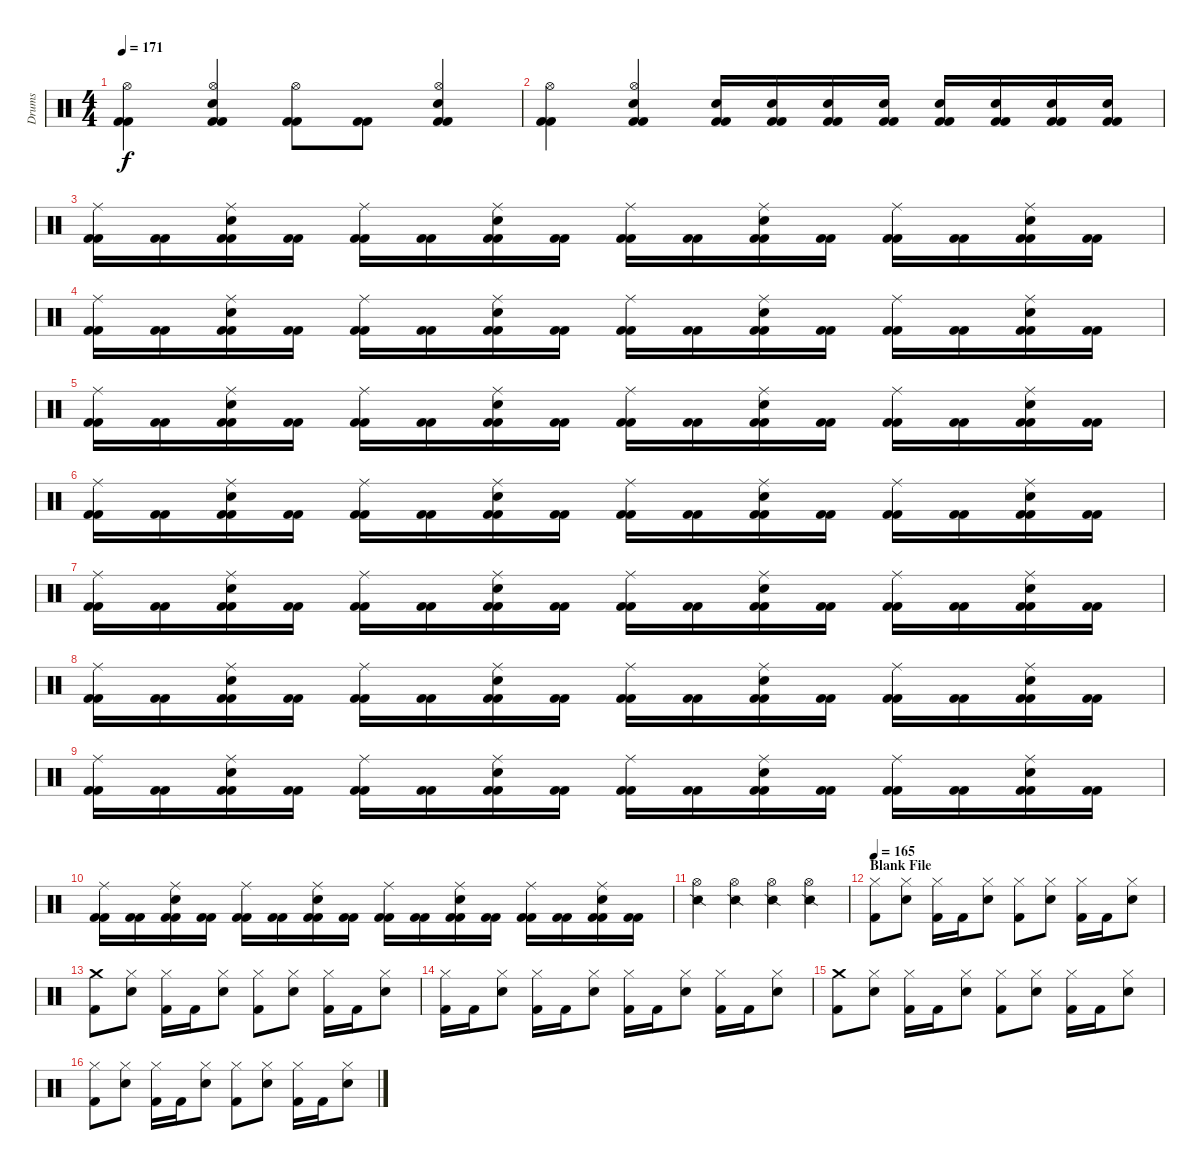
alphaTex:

\track ("Drums" "Drums") {instrument percussion}
\staff {score}
\articulation defaults
\ts (4 4)
\tempo 171
\clef neutral
\ks c
("Kick (hit) 2" "Kick (hit) 2" "Hi-Hat (open)").4{dy f} ("Kick (hit) 2" "Kick (hit) 2" "Electric Snare (hit)" "Hi-Hat (open)").4 ("Kick (hit) 2" "Kick (hit) 2" "Hi-Hat (open)").8 ("Kick (hit) 2" "Kick (hit) 2").8 ("Kick (hit) 2" "Kick (hit) 2" "Electric Snare (hit)" "Hi-Hat (open)").4 |
("Kick (hit) 2" "Kick (hit) 2" "Hi-Hat (open)").4 ("Kick (hit) 2" "Kick (hit) 2" "Electric Snare (hit)" "Hi-Hat (open)").4 ("Kick (hit) 2" "Kick (hit) 2" "Electric Snare (hit)").16 ("Kick (hit) 2" "Kick (hit) 2" "Electric Snare (hit)").16 ("Kick (hit) 2" "Kick (hit) 2" "Electric Snare (hit)").16 ("Kick (hit) 2" "Kick (hit) 2" "Electric Snare (hit)").16 ("Kick (hit) 2" "Kick (hit) 2" "Electric Snare (hit)").16 ("Kick (hit) 2" "Kick (hit) 2" "Electric Snare (hit)").16 ("Kick (hit) 2" "Kick (hit) 2" "Electric Snare (hit)").16 ("Kick (hit) 2" "Kick (hit) 2" "Electric Snare (hit)").16 |
("Kick (hit) 2" "Kick (hit) 2" "Ride (middle)").16 ("Kick (hit) 2" "Kick (hit) 2").16 ("Kick (hit) 2" "Kick (hit) 2" "Electric Snare (hit)" "Ride (middle)").16 ("Kick (hit) 2" "Kick (hit) 2").16 ("Kick (hit) 2" "Kick (hit) 2" "Ride (middle)").16 ("Kick (hit) 2" "Kick (hit) 2").16 ("Kick (hit) 2" "Kick (hit) 2" "Electric Snare (hit)" "Ride (middle)").16 ("Kick (hit) 2" "Kick (hit) 2").16 ("Kick (hit) 2" "Kick (hit) 2" "Ride (middle)").16 ("Kick (hit) 2" "Kick (hit) 2").16 ("Kick (hit) 2" "Kick (hit) 2" "Electric Snare (hit)" "Ride (middle)").16 ("Kick (hit) 2" "Kick (hit) 2").16 ("Kick (hit) 2" "Kick (hit) 2" "Ride (middle)").16 ("Kick (hit) 2" "Kick (hit) 2").16 ("Kick (hit) 2" "Kick (hit) 2" "Electric Snare (hit)" "Ride (middle)").16 ("Kick (hit) 2" "Kick (hit) 2").16 |
("Kick (hit) 2" "Kick (hit) 2" "Ride (middle)").16 ("Kick (hit) 2" "Kick (hit) 2").16 ("Kick (hit) 2" "Kick (hit) 2" "Electric Snare (hit)" "Ride (middle)").16 ("Kick (hit) 2" "Kick (hit) 2").16 ("Kick (hit) 2" "Kick (hit) 2" "Ride (middle)").16 ("Kick (hit) 2" "Kick (hit) 2").16 ("Kick (hit) 2" "Kick (hit) 2" "Electric Snare (hit)" "Ride (middle)").16 ("Kick (hit) 2" "Kick (hit) 2").16 ("Kick (hit) 2" "Kick (hit) 2" "Ride (middle)").16 ("Kick (hit) 2" "Kick (hit) 2").16 ("Kick (hit) 2" "Kick (hit) 2" "Electric Snare (hit)" "Ride (middle)").16 ("Kick (hit) 2" "Kick (hit) 2").16 ("Kick (hit) 2" "Kick (hit) 2" "Ride (middle)").16 ("Kick (hit) 2" "Kick (hit) 2").16 ("Kick (hit) 2" "Kick (hit) 2" "Electric Snare (hit)" "Ride (middle)").16 ("Kick (hit) 2" "Kick (hit) 2").16 |
("Kick (hit) 2" "Kick (hit) 2" "Ride (middle)").16 ("Kick (hit) 2" "Kick (hit) 2").16 ("Kick (hit) 2" "Kick (hit) 2" "Electric Snare (hit)" "Ride (middle)").16 ("Kick (hit) 2" "Kick (hit) 2").16 ("Kick (hit) 2" "Kick (hit) 2" "Ride (middle)").16 ("Kick (hit) 2" "Kick (hit) 2").16 ("Kick (hit) 2" "Kick (hit) 2" "Electric Snare (hit)" "Ride (middle)").16 ("Kick (hit) 2" "Kick (hit) 2").16 ("Kick (hit) 2" "Kick (hit) 2" "Ride (middle)").16 ("Kick (hit) 2" "Kick (hit) 2").16 ("Kick (hit) 2" "Kick (hit) 2" "Electric Snare (hit)" "Ride (middle)").16 ("Kick (hit) 2" "Kick (hit) 2").16 ("Kick (hit) 2" "Kick (hit) 2" "Ride (middle)").16 ("Kick (hit) 2" "Kick (hit) 2").16 ("Kick (hit) 2" "Kick (hit) 2" "Electric Snare (hit)" "Ride (middle)").16 ("Kick (hit) 2" "Kick (hit) 2").16 |
("Kick (hit) 2" "Kick (hit) 2" "Ride (middle)").16 ("Kick (hit) 2" "Kick (hit) 2").16 ("Kick (hit) 2" "Kick (hit) 2" "Electric Snare (hit)" "Ride (middle)").16 ("Kick (hit) 2" "Kick (hit) 2").16 ("Kick (hit) 2" "Kick (hit) 2" "Ride (middle)").16 ("Kick (hit) 2" "Kick (hit) 2").16 ("Kick (hit) 2" "Kick (hit) 2" "Electric Snare (hit)" "Ride (middle)").16 ("Kick (hit) 2" "Kick (hit) 2").16 ("Kick (hit) 2" "Kick (hit) 2" "Ride (middle)").16 ("Kick (hit) 2" "Kick (hit) 2").16 ("Kick (hit) 2" "Kick (hit) 2" "Electric Snare (hit)" "Ride (middle)").16 ("Kick (hit) 2" "Kick (hit) 2").16 ("Kick (hit) 2" "Kick (hit) 2" "Ride (middle)").16 ("Kick (hit) 2" "Kick (hit) 2").16 ("Kick (hit) 2" "Kick (hit) 2" "Electric Snare (hit)" "Ride (middle)").16 ("Kick (hit) 2" "Kick (hit) 2").16 |
("Kick (hit) 2" "Kick (hit) 2" "Ride (middle)").16 ("Kick (hit) 2" "Kick (hit) 2").16 ("Kick (hit) 2" "Kick (hit) 2" "Electric Snare (hit)" "Ride (middle)").16 ("Kick (hit) 2" "Kick (hit) 2").16 ("Kick (hit) 2" "Kick (hit) 2" "Ride (middle)").16 ("Kick (hit) 2" "Kick (hit) 2").16 ("Kick (hit) 2" "Kick (hit) 2" "Electric Snare (hit)" "Ride (middle)").16 ("Kick (hit) 2" "Kick (hit) 2").16 ("Kick (hit) 2" "Kick (hit) 2" "Ride (middle)").16 ("Kick (hit) 2" "Kick (hit) 2").16 ("Kick (hit) 2" "Kick (hit) 2" "Electric Snare (hit)" "Ride (middle)").16 ("Kick (hit) 2" "Kick (hit) 2").16 ("Kick (hit) 2" "Kick (hit) 2" "Ride (middle)").16 ("Kick (hit) 2" "Kick (hit) 2").16 ("Kick (hit) 2" "Kick (hit) 2" "Electric Snare (hit)" "Ride (middle)").16 ("Kick (hit) 2" "Kick (hit) 2").16 |
("Kick (hit) 2" "Kick (hit) 2" "Ride (middle)").16 ("Kick (hit) 2" "Kick (hit) 2").16 ("Kick (hit) 2" "Kick (hit) 2" "Electric Snare (hit)" "Ride (middle)").16 ("Kick (hit) 2" "Kick (hit) 2").16 ("Kick (hit) 2" "Kick (hit) 2" "Ride (middle)").16 ("Kick (hit) 2" "Kick (hit) 2").16 ("Kick (hit) 2" "Kick (hit) 2" "Electric Snare (hit)" "Ride (middle)").16 ("Kick (hit) 2" "Kick (hit) 2").16 ("Kick (hit) 2" "Kick (hit) 2" "Ride (middle)").16 ("Kick (hit) 2" "Kick (hit) 2").16 ("Kick (hit) 2" "Kick (hit) 2" "Electric Snare (hit)" "Ride (middle)").16 ("Kick (hit) 2" "Kick (hit) 2").16 ("Kick (hit) 2" "Kick (hit) 2" "Ride (middle)").16 ("Kick (hit) 2" "Kick (hit) 2").16 ("Kick (hit) 2" "Kick (hit) 2" "Electric Snare (hit)" "Ride (middle)").16 ("Kick (hit) 2" "Kick (hit) 2").16 |
("Kick (hit) 2" "Kick (hit) 2" "Ride (middle)").16 ("Kick (hit) 2" "Kick (hit) 2").16 ("Kick (hit) 2" "Kick (hit) 2" "Electric Snare (hit)" "Ride (middle)").16 ("Kick (hit) 2" "Kick (hit) 2").16 ("Kick (hit) 2" "Kick (hit) 2" "Ride (middle)").16 ("Kick (hit) 2" "Kick (hit) 2").16 ("Kick (hit) 2" "Kick (hit) 2" "Electric Snare (hit)" "Ride (middle)").16 ("Kick (hit) 2" "Kick (hit) 2").16 ("Kick (hit) 2" "Kick (hit) 2" "Ride (middle)").16 ("Kick (hit) 2" "Kick (hit) 2").16 ("Kick (hit) 2" "Kick (hit) 2" "Electric Snare (hit)" "Ride (middle)").16 ("Kick (hit) 2" "Kick (hit) 2").16 ("Kick (hit) 2" "Kick (hit) 2" "Ride (middle)").16 ("Kick (hit) 2" "Kick (hit) 2").16 ("Kick (hit) 2" "Kick (hit) 2" "Electric Snare (hit)" "Ride (middle)").16 ("Kick (hit) 2" "Kick (hit) 2").16 |
("Kick (hit) 2" "Kick (hit) 2" "Ride (middle)").16 ("Kick (hit) 2" "Kick (hit) 2").16 ("Kick (hit) 2" "Kick (hit) 2" "Electric Snare (hit)" "Ride (middle)").16 ("Kick (hit) 2" "Kick (hit) 2").16 ("Kick (hit) 2" "Kick (hit) 2" "Ride (middle)").16 ("Kick (hit) 2" "Kick (hit) 2").16 ("Kick (hit) 2" "Kick (hit) 2" "Electric Snare (hit)" "Ride (middle)").16 ("Kick (hit) 2" "Kick (hit) 2").16 ("Kick (hit) 2" "Kick (hit) 2" "Ride (middle)").16 ("Kick (hit) 2" "Kick (hit) 2").16 ("Kick (hit) 2" "Kick (hit) 2" "Electric Snare (hit)" "Ride (middle)").16 ("Kick (hit) 2" "Kick (hit) 2").16 ("Kick (hit) 2" "Kick (hit) 2" "Ride (middle)").16 ("Kick (hit) 2" "Kick (hit) 2").16 ("Kick (hit) 2" "Kick (hit) 2" "Electric Snare (hit)" "Ride (middle)").16 ("Kick (hit) 2" "Kick (hit) 2").16 |
("Snare (side stick) 2" "Hi-Hat (open)").4 ("Snare (side stick) 2" "Hi-Hat (open)").4 ("Snare (side stick) 2" "Hi-Hat (open)").4 ("Snare (side stick) 2" "Hi-Hat (open)").4 |
\section ("" "Blank File")
\tempo 165
("Hi-Hat (closed)" "Kick (hit) 2").8 ("Hi-Hat (closed)" "Snare (hit) 2").8 ("Hi-Hat (closed)" "Kick (hit) 2").16 "Kick (hit) 2".16 ("Hi-Hat (closed)" "Snare (hit) 2").8 ("Hi-Hat (closed)" "Kick (hit) 2").8 ("Hi-Hat (closed)" "Snare (hit) 2").8 ("Hi-Hat (closed)" "Kick (hit) 2").16 "Kick (hit) 2".16 ("Hi-Hat (closed)" "Snare (hit) 2").8 |
("Crash medium (hit)" "Kick (hit) 2").8 ("Hi-Hat (closed)" "Snare (hit) 2").8 ("Hi-Hat (closed)" "Kick (hit) 2").16 "Kick (hit) 2".16 ("Hi-Hat (closed)" "Snare (hit) 2").8 ("Hi-Hat (closed)" "Kick (hit) 2").8 ("Hi-Hat (closed)" "Snare (hit) 2").8 ("Hi-Hat (closed)" "Kick (hit) 2").16 "Kick (hit) 2".16 ("Hi-Hat (closed)" "Snare (hit) 2").8 |
("Hi-Hat (closed)" "Kick (hit) 2").16 "Kick (hit) 2".16 ("Hi-Hat (closed)" "Snare (hit) 2").8 ("Hi-Hat (closed)" "Kick (hit) 2").16 "Kick (hit) 2".16 ("Hi-Hat (closed)" "Snare (hit) 2").8 ("Hi-Hat (closed)" "Kick (hit) 2").16 "Kick (hit) 2".16 ("Hi-Hat (closed)" "Snare (hit) 2").8 ("Hi-Hat (closed)" "Kick (hit) 2").16 "Kick (hit) 2".16 ("Hi-Hat (closed)" "Snare (hit) 2").8 |
("Crash medium (hit)" "Kick (hit) 2").8 ("Hi-Hat (closed)" "Snare (hit) 2").8 ("Hi-Hat (closed)" "Kick (hit) 2").16 "Kick (hit) 2".16 ("Hi-Hat (closed)" "Snare (hit) 2").8 ("Hi-Hat (closed)" "Kick (hit) 2").8 ("Hi-Hat (closed)" "Snare (hit) 2").8 ("Hi-Hat (closed)" "Kick (hit) 2").16 "Kick (hit) 2".16 ("Hi-Hat (closed)" "Snare (hit) 2").8 |
("Hi-Hat (closed)" "Kick (hit) 2").8 ("Hi-Hat (closed)" "Snare (hit) 2").8 ("Hi-Hat (closed)" "Kick (hit) 2").16 "Kick (hit) 2".16 ("Hi-Hat (closed)" "Snare (hit) 2").8 ("Hi-Hat (closed)" "Kick (hit) 2").8 ("Hi-Hat (closed)" "Snare (hit) 2").8 ("Hi-Hat (closed)" "Kick (hit) 2").16 "Kick (hit) 2".16 ("Hi-Hat (closed)" "Snare (hit) 2").8
